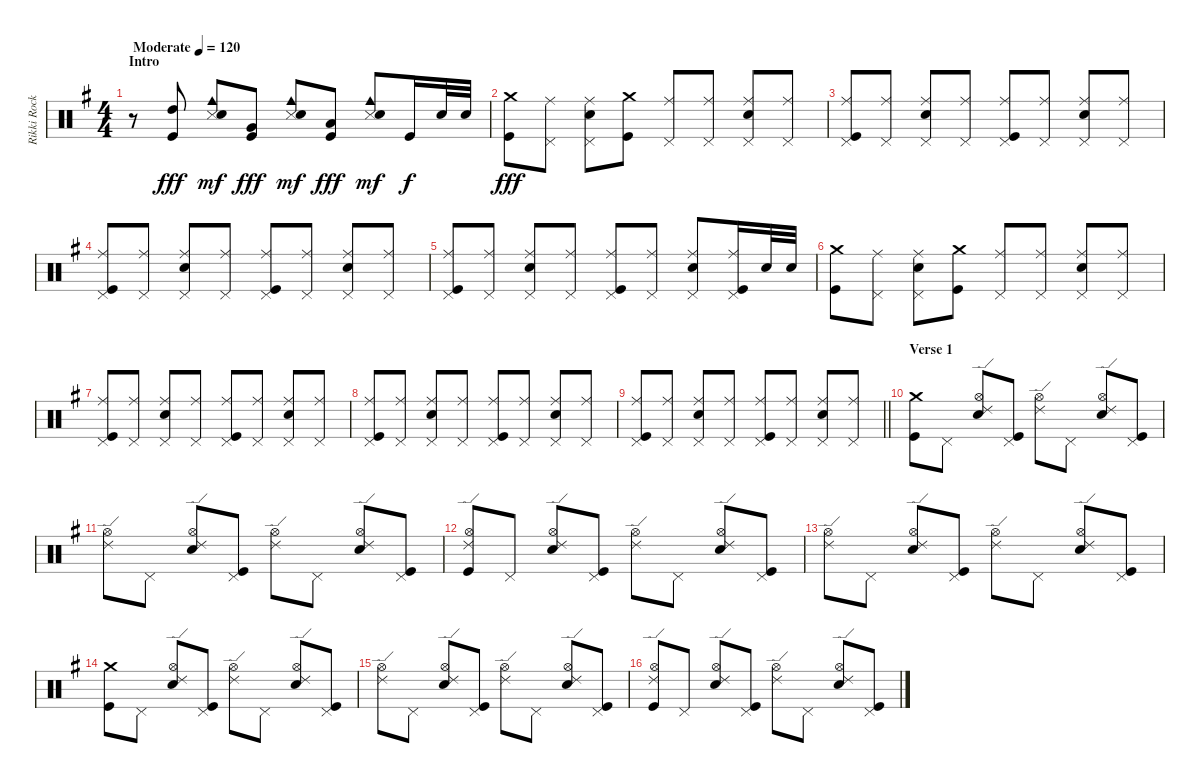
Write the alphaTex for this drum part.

\track ("Rikki Rocket: Drums" "Rikki Rock") {instrument percussion}
\staff {score}
\articulation defaults
\ts (4 4)
\section ("" "Intro")
\tempo (120 "Moderate")
\clef neutral
\ks g
r.8{dy fff} ("High Tom (hit)" "Kick (hit)").8 ("Snare (side stick) 3" "Cowbell medium (hit)" "Electric Snare (hit)").8{dy mf} ("Very Low Tom (hit)" "Kick (hit)").8{dy fff} ("Snare (side stick) 3" "Cowbell medium (hit)" "Electric Snare (hit)").8{dy mf} ("Low Floor Tom (hit)" "Kick (hit)").8{dy fff} ("Snare (side stick) 3" "Cowbell medium (hit)" "Electric Snare (hit)").8{dy mf} "Kick (hit)".16{dy f} "Electric Snare (hit)".32 "Electric Snare (hit)".32 |
("Crash medium (hit)" "Kick (hit)").8{dy fff} ("Ride (middle)" "Pedal Hi-Hat (hit)").8 ("Ride (middle)" "Pedal Hi-Hat (hit)" "Electric Snare (hit)").8 ("Crash medium (hit)" "Kick (hit)").8 ("Ride (middle)" "Pedal Hi-Hat (hit)").8 ("Ride (middle)" "Pedal Hi-Hat (hit)").8 ("Ride (middle)" "Pedal Hi-Hat (hit)" "Electric Snare (hit)").8 ("Ride (middle)" "Pedal Hi-Hat (hit)").8 |
("Ride (middle)" "Pedal Hi-Hat (hit)" "Kick (hit)").8 ("Ride (middle)" "Pedal Hi-Hat (hit)").8 ("Ride (middle)" "Pedal Hi-Hat (hit)" "Electric Snare (hit)").8 ("Ride (middle)" "Pedal Hi-Hat (hit)").8 ("Ride (middle)" "Pedal Hi-Hat (hit)" "Kick (hit)").8 ("Ride (middle)" "Pedal Hi-Hat (hit)").8 ("Ride (middle)" "Pedal Hi-Hat (hit)" "Electric Snare (hit)").8 ("Ride (middle)" "Pedal Hi-Hat (hit)").8 |
("Ride (middle)" "Pedal Hi-Hat (hit)" "Kick (hit)").8 ("Ride (middle)" "Pedal Hi-Hat (hit)").8 ("Ride (middle)" "Pedal Hi-Hat (hit)" "Electric Snare (hit)").8 ("Ride (middle)" "Pedal Hi-Hat (hit)").8 ("Ride (middle)" "Pedal Hi-Hat (hit)" "Kick (hit)").8 ("Ride (middle)" "Pedal Hi-Hat (hit)").8 ("Ride (middle)" "Pedal Hi-Hat (hit)" "Electric Snare (hit)").8 ("Ride (middle)" "Pedal Hi-Hat (hit)").8 |
("Ride (middle)" "Pedal Hi-Hat (hit)" "Kick (hit)").8 ("Ride (middle)" "Pedal Hi-Hat (hit)").8 ("Ride (middle)" "Pedal Hi-Hat (hit)" "Electric Snare (hit)").8 ("Ride (middle)" "Pedal Hi-Hat (hit)").8 ("Ride (middle)" "Pedal Hi-Hat (hit)" "Kick (hit)").8 ("Ride (middle)" "Pedal Hi-Hat (hit)").8 ("Ride (middle)" "Pedal Hi-Hat (hit)" "Electric Snare (hit)").8 ("Ride (middle)" "Pedal Hi-Hat (hit)" "Kick (hit)").16 "Electric Snare (hit)".32 "Electric Snare (hit)".32 |
("Crash medium (hit)" "Kick (hit)").8 ("Ride (middle)" "Pedal Hi-Hat (hit)").8 ("Ride (middle)" "Pedal Hi-Hat (hit)" "Electric Snare (hit)").8 ("Crash medium (hit)" "Kick (hit)").8 ("Ride (middle)" "Pedal Hi-Hat (hit)").8 ("Ride (middle)" "Pedal Hi-Hat (hit)").8 ("Ride (middle)" "Pedal Hi-Hat (hit)" "Electric Snare (hit)").8 ("Ride (middle)" "Pedal Hi-Hat (hit)").8 |
("Ride (middle)" "Pedal Hi-Hat (hit)" "Kick (hit)").8 ("Ride (middle)" "Pedal Hi-Hat (hit)").8 ("Ride (middle)" "Pedal Hi-Hat (hit)" "Electric Snare (hit)").8 ("Ride (middle)" "Pedal Hi-Hat (hit)").8 ("Ride (middle)" "Pedal Hi-Hat (hit)" "Kick (hit)").8 ("Ride (middle)" "Pedal Hi-Hat (hit)").8 ("Ride (middle)" "Pedal Hi-Hat (hit)" "Electric Snare (hit)").8 ("Ride (middle)" "Pedal Hi-Hat (hit)").8 |
("Ride (middle)" "Pedal Hi-Hat (hit)" "Kick (hit)").8 ("Ride (middle)" "Pedal Hi-Hat (hit)").8 ("Ride (middle)" "Pedal Hi-Hat (hit)" "Electric Snare (hit)").8 ("Ride (middle)" "Pedal Hi-Hat (hit)").8 ("Ride (middle)" "Pedal Hi-Hat (hit)" "Kick (hit)").8 ("Ride (middle)" "Pedal Hi-Hat (hit)").8 ("Ride (middle)" "Pedal Hi-Hat (hit)" "Electric Snare (hit)").8 ("Ride (middle)" "Pedal Hi-Hat (hit)").8 |
\barLineRight lightlight
("Ride (middle)" "Pedal Hi-Hat (hit)" "Kick (hit)").8 ("Ride (middle)" "Pedal Hi-Hat (hit)").8 ("Ride (middle)" "Pedal Hi-Hat (hit)" "Electric Snare (hit)").8 ("Ride (middle)" "Pedal Hi-Hat (hit)").8 ("Ride (middle)" "Pedal Hi-Hat (hit)" "Kick (hit)").8 ("Ride (middle)" "Pedal Hi-Hat (hit)").8 ("Ride (middle)" "Pedal Hi-Hat (hit)" "Electric Snare (hit)").8 ("Ride (middle)" "Pedal Hi-Hat (hit)").8 |
\section ("" "Verse 1")
("Crash medium (hit)" "Kick (hit)").8 "Pedal Hi-Hat (hit)".8 ("Hi-Hat (open)" "Ride (edge) 2" "Electric Snare (hit)").8 ("Pedal Hi-Hat (hit)" "Kick (hit)").8 ("Hi-Hat (open)" "Ride (edge) 2").8 "Pedal Hi-Hat (hit)".8 ("Hi-Hat (open)" "Ride (edge) 2" "Electric Snare (hit)").8 ("Pedal Hi-Hat (hit)" "Kick (hit)").8 |
("Hi-Hat (open)" "Ride (edge) 2").8 "Pedal Hi-Hat (hit)".8 ("Hi-Hat (open)" "Ride (edge) 2" "Electric Snare (hit)").8 ("Pedal Hi-Hat (hit)" "Kick (hit)").8 ("Hi-Hat (open)" "Ride (edge) 2").8 "Pedal Hi-Hat (hit)".8 ("Hi-Hat (open)" "Ride (edge) 2" "Electric Snare (hit)").8 ("Pedal Hi-Hat (hit)" "Kick (hit)").8 |
("Hi-Hat (open)" "Ride (edge) 2" "Kick (hit)").8 "Pedal Hi-Hat (hit)".8 ("Hi-Hat (open)" "Ride (edge) 2" "Electric Snare (hit)").8 ("Pedal Hi-Hat (hit)" "Kick (hit)").8 ("Hi-Hat (open)" "Ride (edge) 2").8 "Pedal Hi-Hat (hit)".8 ("Hi-Hat (open)" "Ride (edge) 2" "Electric Snare (hit)").8 ("Pedal Hi-Hat (hit)" "Kick (hit)").8 |
("Hi-Hat (open)" "Ride (edge) 2").8 "Pedal Hi-Hat (hit)".8 ("Hi-Hat (open)" "Ride (edge) 2" "Electric Snare (hit)").8 ("Pedal Hi-Hat (hit)" "Kick (hit)").8 ("Hi-Hat (open)" "Ride (edge) 2").8 "Pedal Hi-Hat (hit)".8 ("Hi-Hat (open)" "Ride (edge) 2" "Electric Snare (hit)").8 ("Pedal Hi-Hat (hit)" "Kick (hit)").8 |
("Crash medium (hit)" "Kick (hit)").8 "Pedal Hi-Hat (hit)".8 ("Hi-Hat (open)" "Ride (edge) 2" "Electric Snare (hit)").8 ("Pedal Hi-Hat (hit)" "Kick (hit)").8 ("Hi-Hat (open)" "Ride (edge) 2").8 "Pedal Hi-Hat (hit)".8 ("Hi-Hat (open)" "Ride (edge) 2" "Electric Snare (hit)").8 ("Pedal Hi-Hat (hit)" "Kick (hit)").8 |
("Hi-Hat (open)" "Ride (edge) 2").8 "Pedal Hi-Hat (hit)".8 ("Hi-Hat (open)" "Ride (edge) 2" "Electric Snare (hit)").8 ("Pedal Hi-Hat (hit)" "Kick (hit)").8 ("Hi-Hat (open)" "Ride (edge) 2").8 "Pedal Hi-Hat (hit)".8 ("Hi-Hat (open)" "Ride (edge) 2" "Electric Snare (hit)").8 ("Pedal Hi-Hat (hit)" "Kick (hit)").8 |
("Hi-Hat (open)" "Ride (edge) 2" "Kick (hit)").8 "Pedal Hi-Hat (hit)".8 ("Hi-Hat (open)" "Ride (edge) 2" "Electric Snare (hit)").8 ("Pedal Hi-Hat (hit)" "Kick (hit)").8 ("Hi-Hat (open)" "Ride (edge) 2").8 "Pedal Hi-Hat (hit)".8 ("Hi-Hat (open)" "Ride (edge) 2" "Electric Snare (hit)").8 ("Pedal Hi-Hat (hit)" "Kick (hit)").8
